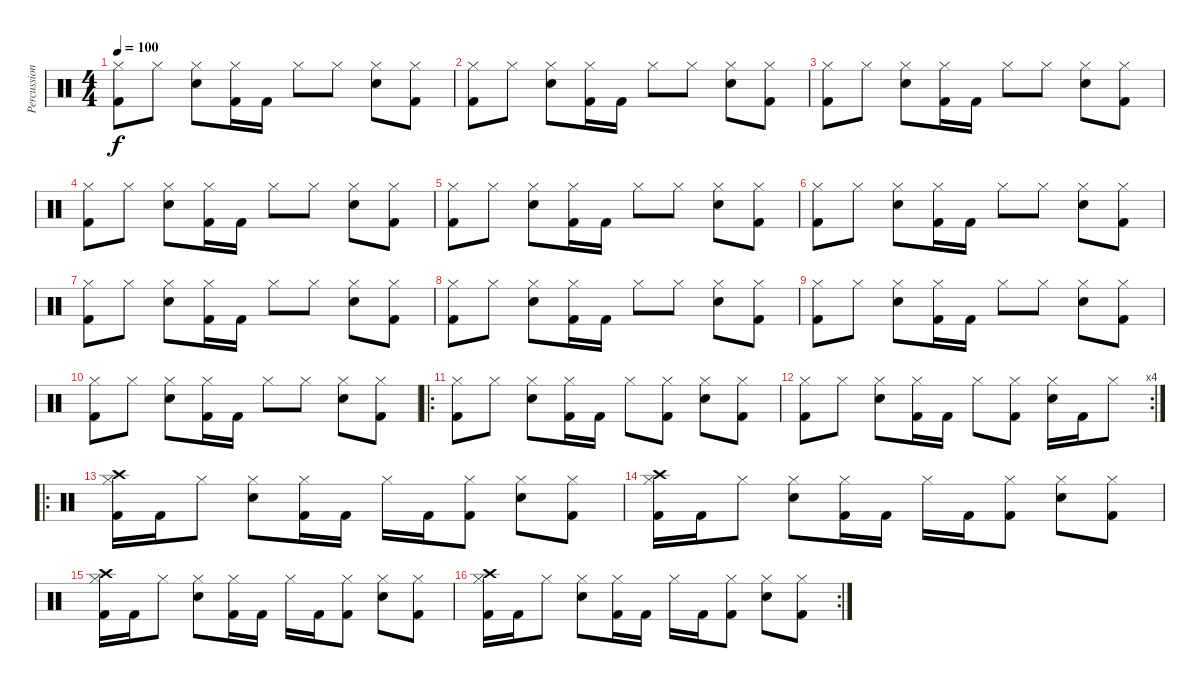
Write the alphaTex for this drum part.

\track ("Percussion" "Percussion") {instrument percussion}
\staff {score}
\articulation defaults
\ts (4 4)
\tempo 100
\clef neutral
\ks c
("Hi-Hat (closed)" "Kick (hit) 2").8{dy f} "Hi-Hat (closed)".8 ("Hi-Hat (closed)" "Electric Snare (hit)").8 ("Hi-Hat (closed)" "Kick (hit) 2").16 "Kick (hit) 2".16 "Hi-Hat (closed)".8 "Hi-Hat (closed)".8 ("Hi-Hat (closed)" "Electric Snare (hit)").8 ("Hi-Hat (closed)" "Kick (hit) 2").8 |
("Hi-Hat (closed)" "Kick (hit) 2").8 "Hi-Hat (closed)".8 ("Hi-Hat (closed)" "Electric Snare (hit)").8 ("Hi-Hat (closed)" "Kick (hit) 2").16 "Kick (hit) 2".16 "Hi-Hat (closed)".8 "Hi-Hat (closed)".8 ("Hi-Hat (closed)" "Electric Snare (hit)").8 ("Hi-Hat (closed)" "Kick (hit) 2").8 |
("Hi-Hat (closed)" "Kick (hit) 2").8 "Hi-Hat (closed)".8 ("Hi-Hat (closed)" "Electric Snare (hit)").8 ("Hi-Hat (closed)" "Kick (hit) 2").16 "Kick (hit) 2".16 "Hi-Hat (closed)".8 "Hi-Hat (closed)".8 ("Hi-Hat (closed)" "Electric Snare (hit)").8 ("Hi-Hat (closed)" "Kick (hit) 2").8 |
("Hi-Hat (closed)" "Kick (hit) 2").8 "Hi-Hat (closed)".8 ("Hi-Hat (closed)" "Electric Snare (hit)").8 ("Hi-Hat (closed)" "Kick (hit) 2").16 "Kick (hit) 2".16 "Hi-Hat (closed)".8 "Hi-Hat (closed)".8 ("Hi-Hat (closed)" "Electric Snare (hit)").8 ("Hi-Hat (closed)" "Kick (hit) 2").8 |
("Hi-Hat (closed)" "Kick (hit) 2").8 "Hi-Hat (closed)".8 ("Hi-Hat (closed)" "Electric Snare (hit)").8 ("Hi-Hat (closed)" "Kick (hit) 2").16 "Kick (hit) 2".16 "Hi-Hat (closed)".8 "Hi-Hat (closed)".8 ("Hi-Hat (closed)" "Electric Snare (hit)").8 ("Hi-Hat (closed)" "Kick (hit) 2").8 |
("Hi-Hat (closed)" "Kick (hit) 2").8 "Hi-Hat (closed)".8 ("Hi-Hat (closed)" "Electric Snare (hit)").8 ("Hi-Hat (closed)" "Kick (hit) 2").16 "Kick (hit) 2".16 "Hi-Hat (closed)".8 "Hi-Hat (closed)".8 ("Hi-Hat (closed)" "Electric Snare (hit)").8 ("Hi-Hat (closed)" "Kick (hit) 2").8 |
("Hi-Hat (closed)" "Kick (hit) 2").8 "Hi-Hat (closed)".8 ("Hi-Hat (closed)" "Electric Snare (hit)").8 ("Hi-Hat (closed)" "Kick (hit) 2").16 "Kick (hit) 2".16 "Hi-Hat (closed)".8 "Hi-Hat (closed)".8 ("Hi-Hat (closed)" "Electric Snare (hit)").8 ("Hi-Hat (closed)" "Kick (hit) 2").8 |
("Hi-Hat (closed)" "Kick (hit) 2").8 "Hi-Hat (closed)".8 ("Hi-Hat (closed)" "Electric Snare (hit)").8 ("Hi-Hat (closed)" "Kick (hit) 2").16 "Kick (hit) 2".16 "Hi-Hat (closed)".8 "Hi-Hat (closed)".8 ("Hi-Hat (closed)" "Electric Snare (hit)").8 ("Hi-Hat (closed)" "Kick (hit) 2").8 |
("Hi-Hat (closed)" "Kick (hit) 2").8 "Hi-Hat (closed)".8 ("Hi-Hat (closed)" "Electric Snare (hit)").8 ("Hi-Hat (closed)" "Kick (hit) 2").16 "Kick (hit) 2".16 "Hi-Hat (closed)".8 "Hi-Hat (closed)".8 ("Hi-Hat (closed)" "Electric Snare (hit)").8 ("Hi-Hat (closed)" "Kick (hit) 2").8 |
("Hi-Hat (closed)" "Kick (hit) 2").8 "Hi-Hat (closed)".8 ("Hi-Hat (closed)" "Electric Snare (hit)").8 ("Hi-Hat (closed)" "Kick (hit) 2").16 "Kick (hit) 2".16 "Hi-Hat (closed)".8 "Hi-Hat (closed)".8 ("Hi-Hat (closed)" "Electric Snare (hit)").8 ("Hi-Hat (closed)" "Kick (hit) 2").8 |
\ro
("Hi-Hat (closed)" "Kick (hit) 2").8 "Hi-Hat (closed)".8 ("Hi-Hat (closed)" "Electric Snare (hit)").8 ("Hi-Hat (closed)" "Kick (hit) 2").16 "Kick (hit) 2".16 "Hi-Hat (closed)".8 ("Hi-Hat (closed)" "Kick (hit) 2").8 ("Hi-Hat (closed)" "Electric Snare (hit)").8 ("Hi-Hat (closed)" "Kick (hit) 2").8 |
\rc 4
("Hi-Hat (closed)" "Kick (hit) 2").8 "Hi-Hat (closed)".8 ("Hi-Hat (closed)" "Electric Snare (hit)").8 ("Hi-Hat (closed)" "Kick (hit) 2").16 "Kick (hit) 2".16 "Hi-Hat (closed)".8 ("Hi-Hat (closed)" "Kick (hit) 2").8 ("Hi-Hat (closed)" "Electric Snare (hit)").16 "Kick (hit) 2".16 "Hi-Hat (closed)".8 |
\ro
("Crash high (hit)" "Hi-Hat (closed)" "Kick (hit) 2").16 "Kick (hit) 2".16 "Hi-Hat (closed)".8 ("Hi-Hat (closed)" "Snare (hit) 2").8 ("Hi-Hat (closed)" "Kick (hit) 2").16 "Kick (hit) 2".16 "Hi-Hat (closed)".16 "Kick (hit) 2".16 ("Hi-Hat (closed)" "Kick (hit) 2").8 ("Hi-Hat (closed)" "Snare (hit) 2").8 ("Hi-Hat (closed)" "Kick (hit) 2").8 |
("Crash high (hit)" "Hi-Hat (closed)" "Kick (hit) 2").16 "Kick (hit) 2".16 "Hi-Hat (closed)".8 ("Hi-Hat (closed)" "Snare (hit) 2").8 ("Hi-Hat (closed)" "Kick (hit) 2").16 "Kick (hit) 2".16 "Hi-Hat (closed)".16 "Kick (hit) 2".16 ("Hi-Hat (closed)" "Kick (hit) 2").8 ("Hi-Hat (closed)" "Snare (hit) 2").8 ("Hi-Hat (closed)" "Kick (hit) 2").8 |
("Crash high (hit)" "Hi-Hat (closed)" "Kick (hit) 2").16 "Kick (hit) 2".16 "Hi-Hat (closed)".8 ("Hi-Hat (closed)" "Snare (hit) 2").8 ("Hi-Hat (closed)" "Kick (hit) 2").16 "Kick (hit) 2".16 "Hi-Hat (closed)".16 "Kick (hit) 2".16 ("Hi-Hat (closed)" "Kick (hit) 2").8 ("Hi-Hat (closed)" "Snare (hit) 2").8 ("Hi-Hat (closed)" "Kick (hit) 2").8 |
\rc 2
("Crash high (hit)" "Hi-Hat (closed)" "Kick (hit) 2").16 "Kick (hit) 2".16 "Hi-Hat (closed)".8 ("Hi-Hat (closed)" "Snare (hit) 2").8 ("Hi-Hat (closed)" "Kick (hit) 2").16 "Kick (hit) 2".16 "Hi-Hat (closed)".16 "Kick (hit) 2".16 ("Hi-Hat (closed)" "Kick (hit) 2").8 ("Hi-Hat (closed)" "Snare (hit) 2").8 ("Hi-Hat (closed)" "Kick (hit) 2").8
